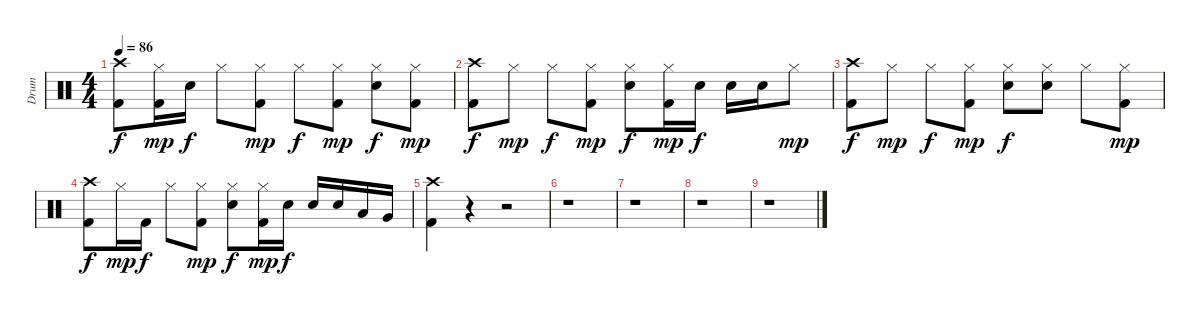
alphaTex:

\track ("Drum" "Drum") {instrument percussion}
\staff {score}
\articulation defaults
\ts (4 4)
\tempo 86
\clef neutral
\ks c
("Crash high (hit)" "Kick (hit) 2").8{dy f} ("Hi-Hat (closed)" "Kick (hit) 2").16{dy mp} "Electric Snare (hit)".16{dy f} "Hi-Hat (closed)".8 ("Hi-Hat (closed)" "Kick (hit) 2").8{dy mp} "Hi-Hat (closed)".8{dy f} ("Hi-Hat (closed)" "Kick (hit) 2").8{dy mp} ("Hi-Hat (closed)" "Electric Snare (hit)").8{dy f} ("Hi-Hat (closed)" "Kick (hit) 2").8{dy mp} |
("Crash high (hit)" "Kick (hit) 2").8{dy f} "Hi-Hat (closed)".8{dy mp} "Hi-Hat (closed)".8{dy f} ("Hi-Hat (closed)" "Kick (hit) 2").8{dy mp} ("Hi-Hat (closed)" "Electric Snare (hit)").8{dy f} ("Hi-Hat (closed)" "Kick (hit) 2").16{dy mp} "Electric Snare (hit)".16{dy f} "Electric Snare (hit)".16 "Electric Snare (hit)".16 "Hi-Hat (closed)".8{dy mp} |
("Crash high (hit)" "Kick (hit) 2").8{dy f} "Hi-Hat (closed)".8{dy mp} "Hi-Hat (closed)".8{dy f} ("Hi-Hat (closed)" "Kick (hit) 2").8{dy mp} ("Hi-Hat (closed)" "Electric Snare (hit)").8{dy f} ("Hi-Hat (closed)" "Electric Snare (hit)").8 "Hi-Hat (closed)".8 ("Hi-Hat (closed)" "Kick (hit) 2").8{dy mp} |
("Crash high (hit)" "Kick (hit) 2").8{dy f} "Hi-Hat (closed)".16{dy mp} "Kick (hit) 2".16{dy f} "Hi-Hat (closed)".8 ("Hi-Hat (closed)" "Kick (hit) 2").8{dy mp} ("Hi-Hat (closed)" "Electric Snare (hit)").8{dy f} ("Hi-Hat (closed)" "Kick (hit) 2").16{dy mp} "Electric Snare (hit)".16{dy f} "Electric Snare (hit)".16 "Electric Snare (hit)".16 "Low Tom (hit)".16 "Very Low Tom (hit)".16 |
("Crash high (hit)" "Kick (hit) 2").4 r.4 r.2 |
r.1 |
r.1 |
r.1 |
r.1
